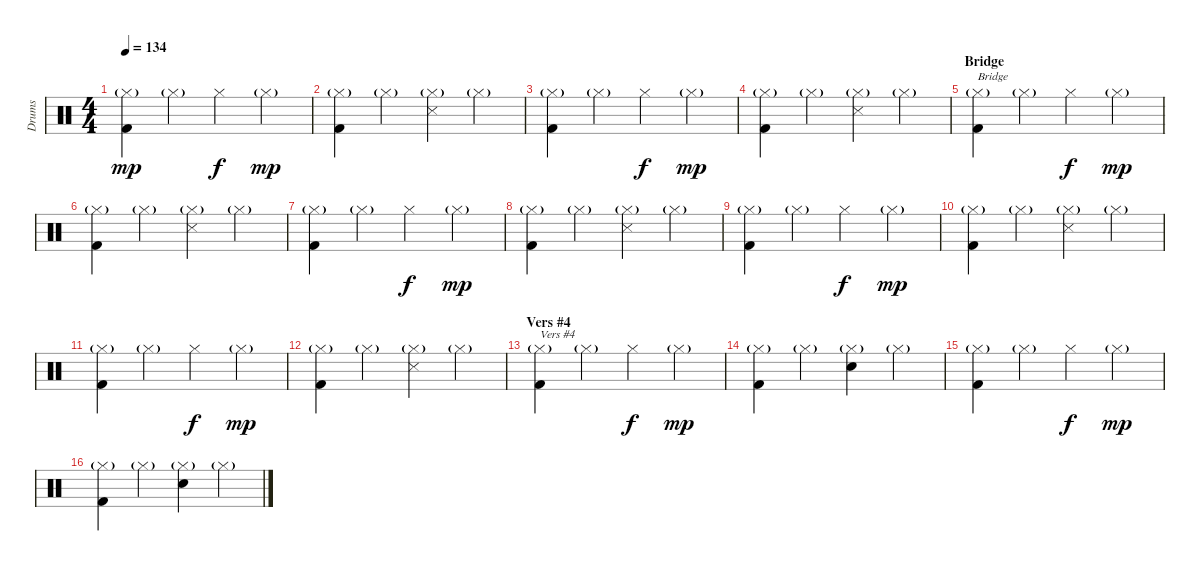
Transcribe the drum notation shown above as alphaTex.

\track ("Drums" "Drums") {instrument percussion}
\staff {score}
\articulation defaults
\ts (4 4)
\tempo 134
\clef neutral
\ks c
("Hi-Hat (closed)"{g} "Kick (hit) 2").4{dy mp} "Hi-Hat (closed)"{g}.4 "Hi-Hat (closed)".4{dy f} "Hi-Hat (closed)"{g}.4{dy mp} |
("Hi-Hat (closed)"{g} "Kick (hit) 2").4 "Hi-Hat (closed)"{g}.4 ("Hi-Hat (closed)"{g} "Snare (side stick) 3").4 "Hi-Hat (closed)"{g}.4 |
("Hi-Hat (closed)"{g} "Kick (hit) 2").4 "Hi-Hat (closed)"{g}.4 "Hi-Hat (closed)".4{dy f} "Hi-Hat (closed)"{g}.4{dy mp} |
("Hi-Hat (closed)"{g} "Kick (hit) 2").4 "Hi-Hat (closed)"{g}.4 ("Hi-Hat (closed)"{g} "Snare (side stick) 3").4 "Hi-Hat (closed)"{g}.4 |
\section ("" "Bridge")
("Hi-Hat (closed)"{g} "Kick (hit) 2").4{txt "Bridge"} "Hi-Hat (closed)"{g}.4 "Hi-Hat (closed)".4{dy f} "Hi-Hat (closed)"{g}.4{dy mp} |
("Hi-Hat (closed)"{g} "Kick (hit) 2").4 "Hi-Hat (closed)"{g}.4 ("Hi-Hat (closed)"{g} "Snare (side stick) 3").4 "Hi-Hat (closed)"{g}.4 |
("Hi-Hat (closed)"{g} "Kick (hit) 2").4 "Hi-Hat (closed)"{g}.4 "Hi-Hat (closed)".4{dy f} "Hi-Hat (closed)"{g}.4{dy mp} |
("Hi-Hat (closed)"{g} "Kick (hit) 2").4 "Hi-Hat (closed)"{g}.4 ("Hi-Hat (closed)"{g} "Snare (side stick) 3").4 "Hi-Hat (closed)"{g}.4 |
("Hi-Hat (closed)"{g} "Kick (hit) 2").4 "Hi-Hat (closed)"{g}.4 "Hi-Hat (closed)".4{dy f} "Hi-Hat (closed)"{g}.4{dy mp} |
("Hi-Hat (closed)"{g} "Kick (hit) 2").4 "Hi-Hat (closed)"{g}.4 ("Hi-Hat (closed)"{g} "Snare (side stick) 3").4 "Hi-Hat (closed)"{g}.4 |
("Hi-Hat (closed)"{g} "Kick (hit) 2").4 "Hi-Hat (closed)"{g}.4 "Hi-Hat (closed)".4{dy f} "Hi-Hat (closed)"{g}.4{dy mp} |
("Hi-Hat (closed)"{g} "Kick (hit) 2").4 "Hi-Hat (closed)"{g}.4 ("Hi-Hat (closed)"{g} "Snare (side stick) 3").4 "Hi-Hat (closed)"{g}.4 |
\section ("" "Vers #4")
("Hi-Hat (closed)"{g} "Kick (hit) 2").4{txt "Vers #4"} "Hi-Hat (closed)"{g}.4 "Hi-Hat (closed)".4{dy f} "Hi-Hat (closed)"{g}.4{dy mp} |
("Hi-Hat (closed)"{g} "Kick (hit) 2").4 "Hi-Hat (closed)"{g}.4 ("Hi-Hat (closed)"{g} "Electric Snare (hit)").4 "Hi-Hat (closed)"{g}.4 |
("Hi-Hat (closed)"{g} "Kick (hit) 2").4 "Hi-Hat (closed)"{g}.4 "Hi-Hat (closed)".4{dy f} "Hi-Hat (closed)"{g}.4{dy mp} |
("Hi-Hat (closed)"{g} "Kick (hit) 2").4 "Hi-Hat (closed)"{g}.4 ("Hi-Hat (closed)"{g} "Electric Snare (hit)").4 "Hi-Hat (closed)"{g}.4
